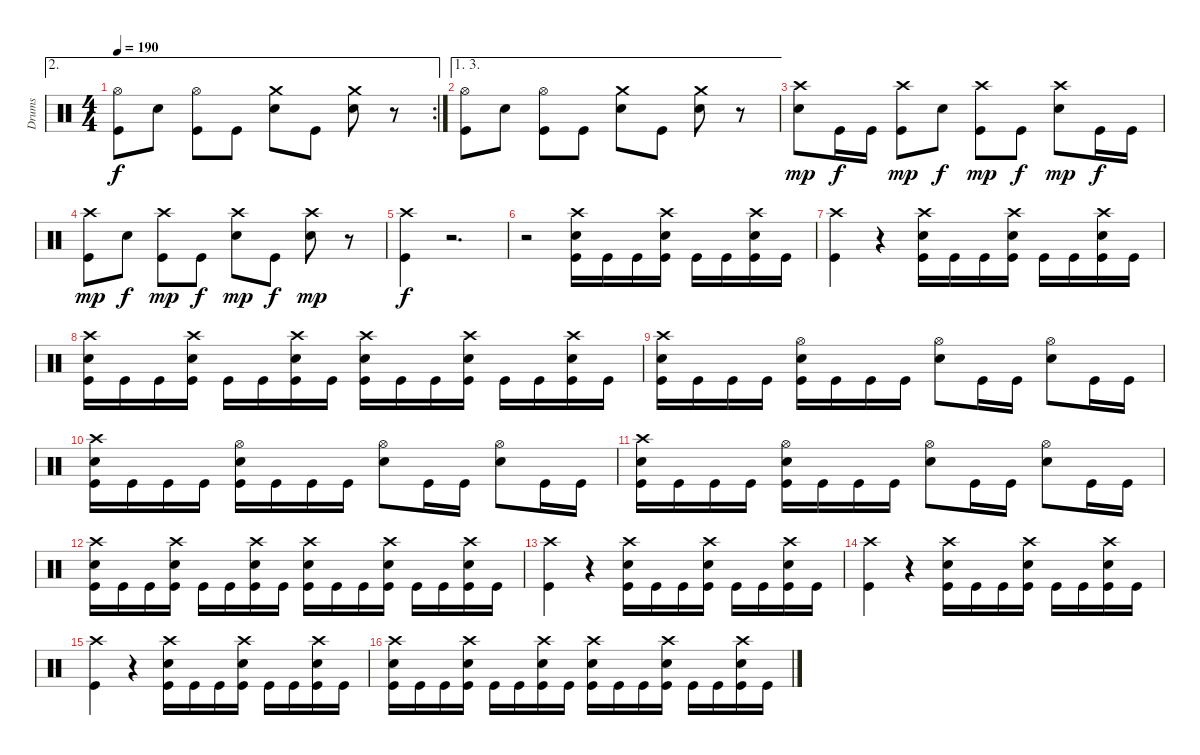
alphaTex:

\track ("Drums" "Drums") {instrument percussion}
\staff {score}
\articulation defaults
\ae 2
\rc 2
\ts (4 4)
\tempo 190
\clef neutral
\ks c
("Hi-Hat (open)" "Kick (hit)").8{dy f} "Electric Snare (hit)".8 ("Hi-Hat (open)" "Kick (hit)").8 "Kick (hit)".8 ("Crash medium (hit)" "Electric Snare (hit)").8 "Kick (hit)".8 ("Crash medium (hit)" "Electric Snare (hit)").8 r.8 |
\ae (1 3)
("Hi-Hat (open)" "Kick (hit)").8 "Electric Snare (hit)".8 ("Hi-Hat (open)" "Kick (hit)").8 "Kick (hit)".8 ("Crash medium (hit)" "Electric Snare (hit)").8 "Kick (hit)".8 ("Crash medium (hit)" "Electric Snare (hit)").8 r.8 |
("Crash high (hit)" "Electric Snare (hit)").8{dy mp} "Kick (hit)".16{dy f} "Kick (hit)".16 ("Crash high (hit)" "Kick (hit)").8{dy mp} "Electric Snare (hit)".8{dy f} ("Crash high (hit)" "Kick (hit)").8{dy mp} "Kick (hit)".8{dy f} ("Crash high (hit)" "Electric Snare (hit)").8{dy mp} "Kick (hit)".16{dy f} "Kick (hit)".16 |
("Crash high (hit)" "Kick (hit)").8{dy mp} "Electric Snare (hit)".8{dy f} ("Crash high (hit)" "Kick (hit)").8{dy mp} "Kick (hit)".8{dy f} ("Crash high (hit)" "Electric Snare (hit)").8{dy mp} "Kick (hit)".8{dy f} ("Crash high (hit)" "Electric Snare (hit)").8{dy mp} r.8 |
("Crash high (hit)" "Kick (hit)").4{dy f} r.2{d volume 6} |
r.2 ("Crash high (hit)" "Electric Snare (hit)" "Kick (hit)").16{volume 13} "Kick (hit)".16 "Kick (hit)".16 ("Crash high (hit)" "Electric Snare (hit)" "Kick (hit)").16 "Kick (hit)".16 "Kick (hit)".16 ("Crash high (hit)" "Electric Snare (hit)" "Kick (hit)").16 "Kick (hit)".16 |
("Crash high (hit)" "Kick (hit)").4 r.4{volume 6} ("Crash high (hit)" "Electric Snare (hit)" "Kick (hit)").16{volume 13} "Kick (hit)".16 "Kick (hit)".16 ("Crash high (hit)" "Electric Snare (hit)" "Kick (hit)").16 "Kick (hit)".16 "Kick (hit)".16 ("Crash high (hit)" "Electric Snare (hit)" "Kick (hit)").16 "Kick (hit)".16 |
("Crash high (hit)" "Electric Snare (hit)" "Kick (hit)").16 "Kick (hit)".16 "Kick (hit)".16 ("Crash high (hit)" "Electric Snare (hit)" "Kick (hit)").16 "Kick (hit)".16 "Kick (hit)".16 ("Crash high (hit)" "Electric Snare (hit)" "Kick (hit)").16 "Kick (hit)".16 ("Crash high (hit)" "Electric Snare (hit)" "Kick (hit)").16 "Kick (hit)".16 "Kick (hit)".16 ("Crash high (hit)" "Electric Snare (hit)" "Kick (hit)").16 "Kick (hit)".16 "Kick (hit)".16 ("Crash high (hit)" "Electric Snare (hit)" "Kick (hit)").16 "Kick (hit)".16 |
("Crash high (hit)" "Electric Snare (hit)" "Kick (hit)").16 "Kick (hit)".16 "Kick (hit)".16 "Kick (hit)".16 ("Hi-Hat (open)" "Electric Snare (hit)" "Kick (hit)").16 "Kick (hit)".16 "Kick (hit)".16 "Kick (hit)".16 ("Hi-Hat (open)" "Electric Snare (hit)").8 "Kick (hit)".16 "Kick (hit)".16 ("Hi-Hat (open)" "Electric Snare (hit)").8 "Kick (hit)".16 "Kick (hit)".16 |
("Crash high (hit)" "Electric Snare (hit)" "Kick (hit)").16 "Kick (hit)".16 "Kick (hit)".16 "Kick (hit)".16 ("Hi-Hat (open)" "Electric Snare (hit)" "Kick (hit)").16 "Kick (hit)".16 "Kick (hit)".16 "Kick (hit)".16 ("Hi-Hat (open)" "Electric Snare (hit)").8 "Kick (hit)".16 "Kick (hit)".16 ("Hi-Hat (open)" "Electric Snare (hit)").8 "Kick (hit)".16 "Kick (hit)".16 |
("Crash high (hit)" "Electric Snare (hit)" "Kick (hit)").16 "Kick (hit)".16 "Kick (hit)".16 "Kick (hit)".16 ("Hi-Hat (open)" "Electric Snare (hit)" "Kick (hit)").16 "Kick (hit)".16 "Kick (hit)".16 "Kick (hit)".16 ("Hi-Hat (open)" "Electric Snare (hit)").8 "Kick (hit)".16 "Kick (hit)".16 ("Hi-Hat (open)" "Electric Snare (hit)").8 "Kick (hit)".16 "Kick (hit)".16 |
("Crash high (hit)" "Electric Snare (hit)" "Kick (hit)").16 "Kick (hit)".16 "Kick (hit)".16 ("Crash high (hit)" "Electric Snare (hit)" "Kick (hit)").16 "Kick (hit)".16 "Kick (hit)".16 ("Crash high (hit)" "Electric Snare (hit)" "Kick (hit)").16 "Kick (hit)".16 ("Crash high (hit)" "Electric Snare (hit)" "Kick (hit)").16 "Kick (hit)".16 "Kick (hit)".16 ("Crash high (hit)" "Electric Snare (hit)" "Kick (hit)").16 "Kick (hit)".16 "Kick (hit)".16 ("Crash high (hit)" "Electric Snare (hit)" "Kick (hit)").16 "Kick (hit)".16 |
("Crash high (hit)" "Kick (hit)").4 r.4{volume 6} ("Crash high (hit)" "Electric Snare (hit)" "Kick (hit)").16{volume 13} "Kick (hit)".16 "Kick (hit)".16 ("Crash high (hit)" "Electric Snare (hit)" "Kick (hit)").16 "Kick (hit)".16 "Kick (hit)".16 ("Crash high (hit)" "Electric Snare (hit)" "Kick (hit)").16 "Kick (hit)".16 |
("Crash high (hit)" "Kick (hit)").4 r.4{volume 6} ("Crash high (hit)" "Electric Snare (hit)" "Kick (hit)").16{volume 13} "Kick (hit)".16 "Kick (hit)".16 ("Crash high (hit)" "Electric Snare (hit)" "Kick (hit)").16 "Kick (hit)".16 "Kick (hit)".16 ("Crash high (hit)" "Electric Snare (hit)" "Kick (hit)").16 "Kick (hit)".16 |
("Crash high (hit)" "Kick (hit)").4 r.4{volume 6} ("Crash high (hit)" "Electric Snare (hit)" "Kick (hit)").16{volume 13} "Kick (hit)".16 "Kick (hit)".16 ("Crash high (hit)" "Electric Snare (hit)" "Kick (hit)").16 "Kick (hit)".16 "Kick (hit)".16 ("Crash high (hit)" "Electric Snare (hit)" "Kick (hit)").16 "Kick (hit)".16 |
("Crash high (hit)" "Electric Snare (hit)" "Kick (hit)").16 "Kick (hit)".16 "Kick (hit)".16 ("Crash high (hit)" "Electric Snare (hit)" "Kick (hit)").16 "Kick (hit)".16 "Kick (hit)".16 ("Crash high (hit)" "Electric Snare (hit)" "Kick (hit)").16 "Kick (hit)".16 ("Crash high (hit)" "Electric Snare (hit)" "Kick (hit)").16 "Kick (hit)".16 "Kick (hit)".16 ("Crash high (hit)" "Electric Snare (hit)" "Kick (hit)").16 "Kick (hit)".16 "Kick (hit)".16 ("Crash high (hit)" "Electric Snare (hit)" "Kick (hit)").16 "Kick (hit)".16
